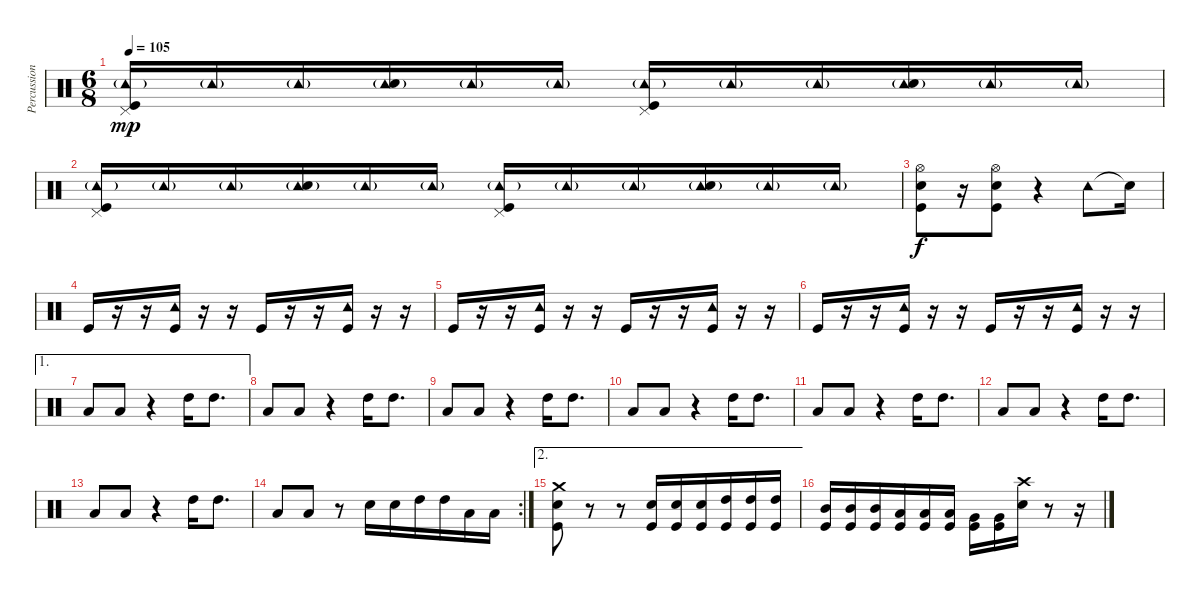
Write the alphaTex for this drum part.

\track ("Percussions" "Percussion") {instrument percussion}
\staff {score}
\articulation defaults
\ts (6 8)
\tempo 105
\clef neutral
\ks c
("Pedal Hi-Hat (hit)" "Tambourine (hit)"{g} "Kick (hit)").16{dy mp} "Tambourine (hit)"{g}.16 "Tambourine (hit)"{g}.16 ("Tambourine (hit)"{g} "Snare (hit) 2").16 "Tambourine (hit)"{g}.16 "Tambourine (hit)"{g}.16 ("Pedal Hi-Hat (hit)" "Tambourine (hit)"{g} "Kick (hit)").16 "Tambourine (hit)"{g}.16 "Tambourine (hit)"{g}.16 ("Tambourine (hit)"{g} "Snare (hit) 2").16 "Tambourine (hit)"{g}.16 "Tambourine (hit)"{g}.16 |
("Pedal Hi-Hat (hit)" "Tambourine (hit)"{g} "Kick (hit)").16 "Tambourine (hit)"{g}.16 "Tambourine (hit)"{g}.16 ("Tambourine (hit)"{g} "Snare (hit) 2").16 "Tambourine (hit)"{g}.16 "Tambourine (hit)"{g}.16 ("Pedal Hi-Hat (hit)" "Tambourine (hit)"{g} "Kick (hit)").16 "Tambourine (hit)"{g}.16 "Tambourine (hit)"{g}.16 ("Tambourine (hit)"{g} "Snare (hit) 2").16 "Tambourine (hit)"{g}.16 "Tambourine (hit)"{g}.16 |
("Hi-Hat (open)" "Snare (hit) 2" "Kick (hit)").8{dy f} r.16 ("Hi-Hat (open)" "Snare (hit) 2" "Kick (hit)").8 r.4 "Tambourine (hit)".8 "Snare (hit)"{t}.16 |
"Kick (hit)".16 r.16 r.16 ("Tambourine (hit)" "Kick (hit)").16 r.16 r.16 "Kick (hit)".16 r.16 r.16 ("Tambourine (hit)" "Kick (hit)").16 r.16 r.16 |
"Kick (hit)".16 r.16 r.16 ("Tambourine (hit)" "Kick (hit)").16 r.16 r.16 "Kick (hit)".16 r.16 r.16 ("Tambourine (hit)" "Kick (hit)").16 r.16 r.16 |
"Kick (hit)".16 r.16 r.16 ("Tambourine (hit)" "Kick (hit)").16 r.16 r.16 "Kick (hit)".16 r.16 r.16 ("Tambourine (hit)" "Kick (hit)").16 r.16 r.16 |
\ae 1 "Low Tom (hit)".8 "Low Tom (hit)".8
r.4 "High Tom (hit)".16 "High Tom (hit)".8{d} |
"Low Tom (hit)".8 "Low Tom (hit)".8 r.4 "High Tom (hit)".16 "High Tom (hit)".8{d} |
"Low Tom (hit)".8 "Low Tom (hit)".8 r.4 "High Tom (hit)".16 "High Tom (hit)".8{d} |
"Low Tom (hit)".8 "Low Tom (hit)".8 r.4 "High Tom (hit)".16 "High Tom (hit)".8{d} |
"Low Tom (hit)".8 "Low Tom (hit)".8 r.4 "High Tom (hit)".16 "High Tom (hit)".8{d} |
"Low Tom (hit)".8 "Low Tom (hit)".8 r.4 "High Tom (hit)".16 "High Tom (hit)".8{d} |
"Low Tom (hit)".8 "Low Tom (hit)".8 r.4 "High Tom (hit)".16 "High Tom (hit)".8{d} |
\rc 2 "Low Tom (hit)".8 "Low Tom (hit)".8
r.8 "Snare (hit) 2".16 "Snare (hit) 2".16 "High Tom (hit)".16 "High Tom (hit)".16 "Low Tom (hit)".16 "Low Tom (hit)".16 |
\ae 2
("Crash medium (hit)" "Snare (hit) 2" "Kick (hit)").8 r.8 r.8 ("Snare (hit) 2" "Kick (hit)").16 ("Snare (hit) 2" "Kick (hit)").16 ("Snare (hit) 2" "Kick (hit)").16 ("High Tom (hit)" "Kick (hit)").16 ("High Tom (hit)" "Kick (hit)").16 ("High Tom (hit)" "Kick (hit)").16 |
("Mid Tom (hit)" "Kick (hit)").16 ("Mid Tom (hit)" "Kick (hit)").16 ("Mid Tom (hit)" "Kick (hit)").16 ("Low Tom (hit)" "Kick (hit)").16 ("Low Tom (hit)" "Kick (hit)").16 ("Low Tom (hit)" "Kick (hit)").16 ("Very Low Tom (hit)" "Kick (hit)").16 ("Very Low Tom (hit)" "Kick (hit)").16 ("Crash high (hit)" "Snare (hit) 2").16 r.8 r.16
